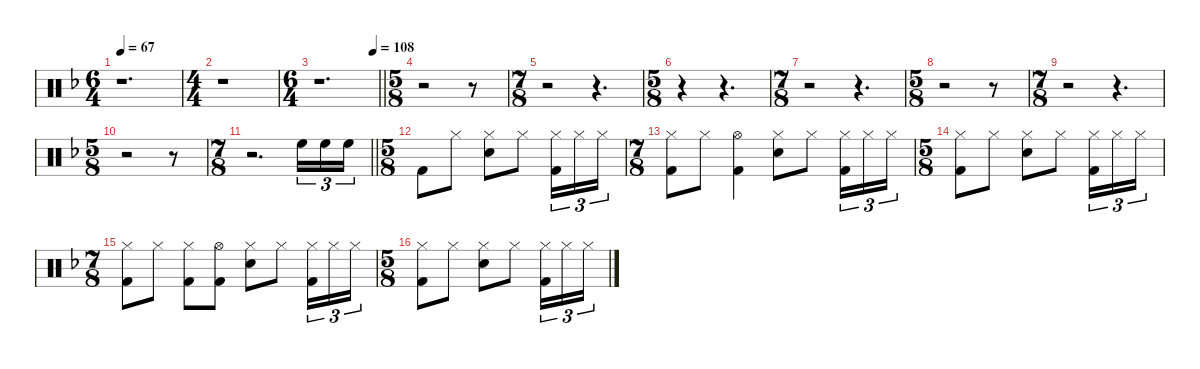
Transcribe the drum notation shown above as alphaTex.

\defaultSystemsLayout 4
\hideDynamics
\bracketExtendMode nobrackets
\singleTrackTrackNamePolicy hidden
\multiTrackTrackNamePolicy hidden
\firstSystemTrackNameMode fullname
\firstSystemTrackNameOrientation horizontal
\otherSystemsTrackNameOrientation horizontal
\track ("Danny Carey" "drm.") {defaultSystemsLayout 4 instrument percussion}
\staff {score}
\articulation defaults
\ts (6 4)
\beaming (8 2 2 2 6)
\tempo 67
\clef neutral
\ks dminor
r.1{d dy f beam Down} |
\ts (4 4)
\beaming (8 2 2 2 2)
r.1{beam Down} |
\ts (6 4)
\beaming (8 2 2 2 6)
\tempo (108 0.916567)
\barLineRight lightlight
r.1{d beam Down} |
\ts (5 8)
\beaming (8 2 2 2 2)
r.2{beam Down} r.8{beam Down} |
\ts (7 8)
\beaming (8 2 2 2 2)
r.2{beam Down} r.4{d beam Down} |
\ts (5 8)
\beaming (8 2 2 2 2)
r.4{beam Down} r.4{d beam Down} |
\ts (7 8)
\beaming (8 2 2 2 2)
r.2{beam Down} r.4{d beam Down} |
\ts (5 8)
\beaming (8 2 2 2 2)
r.2{beam Down} r.8{beam Down} |
\ts (7 8)
\beaming (8 2 2 2 2)
r.2{beam Down} r.4{d beam Down} |
\ts (5 8)
\beaming (8 2 2 2 2)
r.2{beam Down} r.8{beam Down} |
\ts (7 8)
\beaming (8 2 2 2 2)
\barLineRight lightlight
r.2{d beam Down} "High Floor Tom (hit)"{acc forcenatural}.16{tu (3 2) beam Down} "High Floor Tom (hit)"{acc forcenatural}.16{tu (3 2) beam Down} "High Floor Tom (hit)"{acc forcenatural}.16{tu (3 2) beam Down} |
\ts (5 8)
\beaming (8 2 2 2 2)
"Kick (hit) 2"{acc forcenatural}.8{beam Down} "Hi-Hat (closed)"{acc forcenatural}.8{beam Down} ("Hi-Hat (closed)"{acc forcenatural} "Snare (hit) 2"{acc forcenatural}).8{beam Down} "Hi-Hat (closed)"{acc forcenatural}.8{beam Down} ("Hi-Hat (closed)"{acc forcenatural} "Kick (hit) 2"{acc forcenatural}).16{tu (3 2) beam Down} "Hi-Hat (closed)"{acc forcenatural}.16{tu (3 2) beam Down} "Hi-Hat (closed)"{acc forcenatural}.16{tu (3 2) beam Down} |
\ts (7 8)
\beaming (8 2 2 2 2)
("Hi-Hat (closed)"{acc forcenatural} "Kick (hit) 2"{acc forcenatural}).8{beam Down} "Hi-Hat (closed)"{acc forcenatural}.8{beam Down} ("Hi-Hat (open)"{acc forcenatural} "Kick (hit) 2"{acc forcenatural}).4{beam Down} ("Hi-Hat (closed)"{acc forcenatural} "Snare (hit) 2"{acc forcenatural}).8{beam Down} "Hi-Hat (closed)"{acc forcenatural}.8{beam Down} ("Hi-Hat (closed)"{acc forcenatural} "Kick (hit) 2"{acc forcenatural}).16{tu (3 2) beam Down} "Hi-Hat (closed)"{acc forcenatural}.16{tu (3 2) beam Down} "Hi-Hat (closed)"{acc forcenatural}.16{tu (3 2) beam Down} |
\ts (5 8)
\beaming (8 2 2 2 2)
("Hi-Hat (closed)"{acc forcenatural} "Kick (hit) 2"{acc forcenatural}).8{beam Down} "Hi-Hat (closed)"{acc forcenatural}.8{beam Down} ("Hi-Hat (closed)"{acc forcenatural} "Snare (hit) 2"{acc forcenatural}).8{beam Down} "Hi-Hat (closed)"{acc forcenatural}.8{beam Down} ("Hi-Hat (closed)"{acc forcenatural} "Kick (hit) 2"{acc forcenatural}).16{tu (3 2) beam Down} "Hi-Hat (closed)"{acc forcenatural}.16{tu (3 2) beam Down} "Hi-Hat (closed)"{acc forcenatural}.16{tu (3 2) beam Down} |
\ts (7 8)
\beaming (8 2 2 2 2)
("Hi-Hat (closed)"{acc forcenatural} "Kick (hit) 2"{acc forcenatural}).8{beam Down} "Hi-Hat (closed)"{acc forcenatural}.8{beam Down} ("Hi-Hat (closed)"{acc forcenatural} "Kick (hit) 2"{acc forcenatural}).8{beam Down} ("Hi-Hat (open)"{acc forcenatural} "Kick (hit) 2"{acc forcenatural}).8{beam Down} ("Hi-Hat (closed)"{acc forcenatural} "Snare (hit) 2"{acc forcenatural}).8{beam Down} "Hi-Hat (closed)"{acc forcenatural}.8{beam Down} ("Hi-Hat (closed)"{acc forcenatural} "Kick (hit) 2"{acc forcenatural}).16{tu (3 2) beam Down} "Hi-Hat (closed)"{acc forcenatural}.16{tu (3 2) beam Down} "Hi-Hat (closed)"{acc forcenatural}.16{tu (3 2) beam Down} |
\ts (5 8)
\beaming (8 2 2 2 2)
("Hi-Hat (closed)"{acc forcenatural} "Kick (hit) 2"{acc forcenatural}).8{beam Down} "Hi-Hat (closed)"{acc forcenatural}.8{beam Down} ("Hi-Hat (closed)"{acc forcenatural} "Snare (hit) 2"{acc forcenatural}).8{beam Down} "Hi-Hat (closed)"{acc forcenatural}.8{beam Down} ("Hi-Hat (closed)"{acc forcenatural} "Kick (hit) 2"{acc forcenatural}).16{tu (3 2) beam Down} "Hi-Hat (closed)"{acc forcenatural}.16{tu (3 2) beam Down} "Hi-Hat (closed)"{acc forcenatural}.16{tu (3 2) beam Down}
